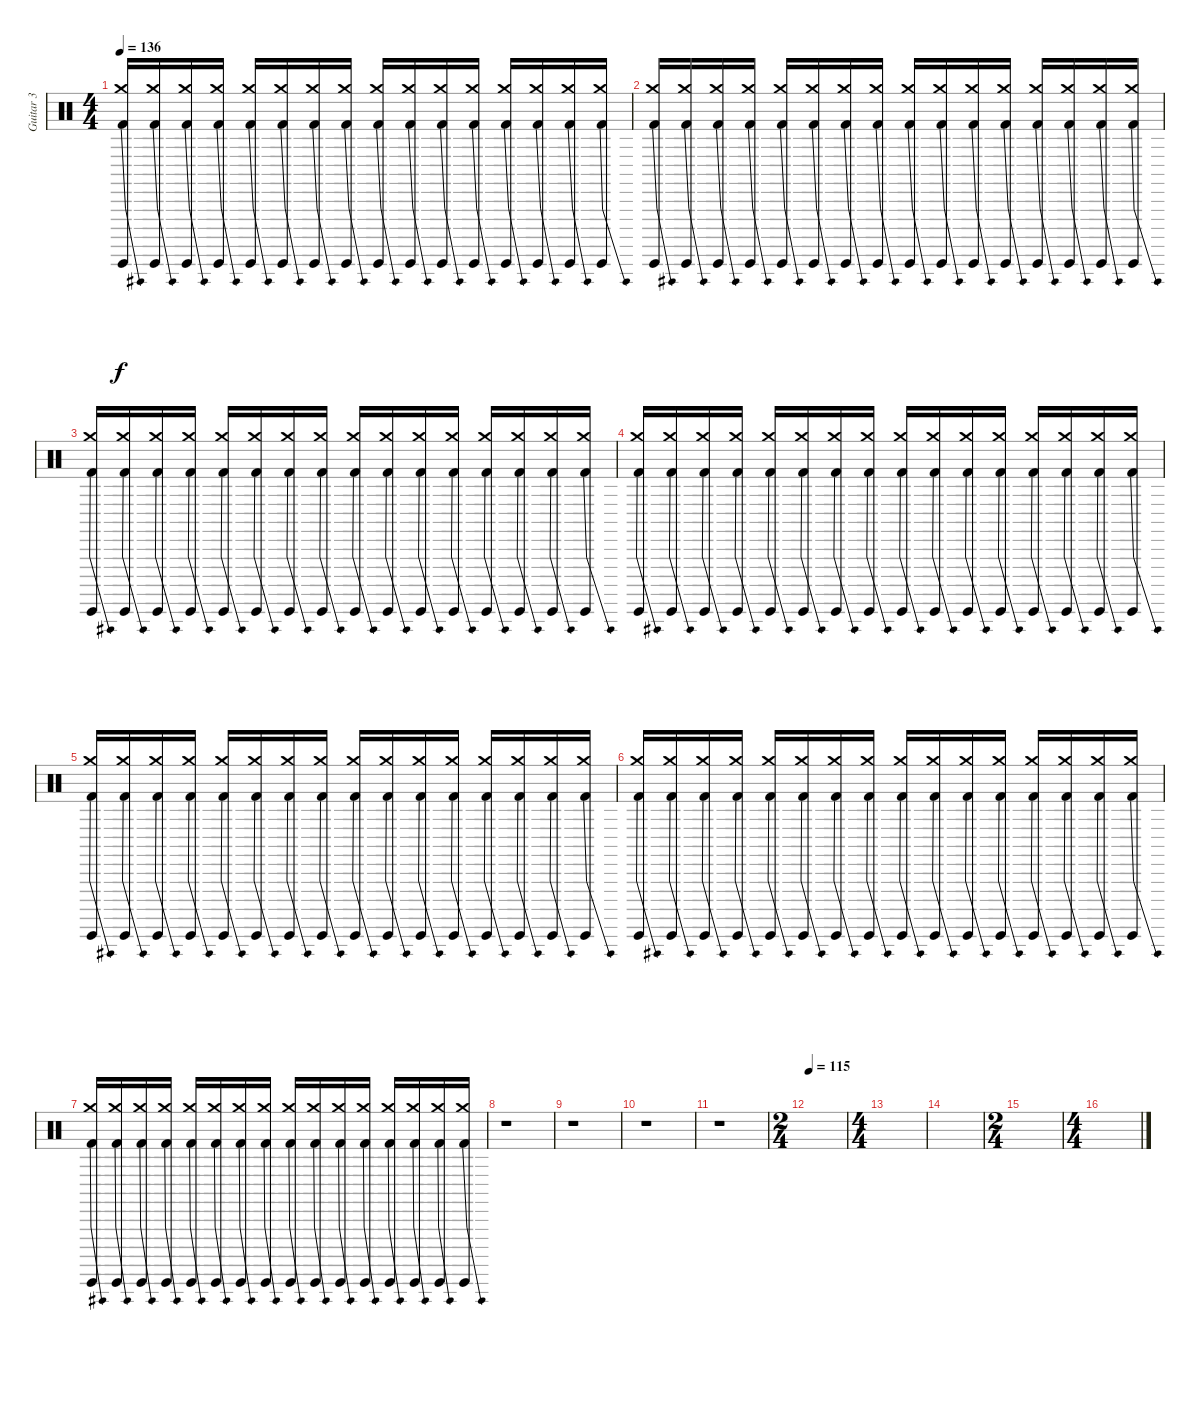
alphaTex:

\track ("Guitar 3" "Guitar 3") {instrument percussion}
\staff {score}
\articulation defaults
\ts (4 4)
\tempo 136
\clef neutral
\ks c
("Kick (hit) 2"{be (bend 0 0 60 12)} "Crash medium (hit)" "Guiro (hit)").16{dy f} ("Kick (hit) 2"{be (bend 0 0 60 12)} "Crash medium (hit)" "Guiro (hit)").16 ("Kick (hit) 2"{be (bend 0 0 60 12)} "Crash medium (hit)" "Guiro (hit)").16 ("Kick (hit) 2"{be (bend 0 0 60 12)} "Crash medium (hit)" "Guiro (hit)").16 ("Kick (hit) 2"{be (bend 0 0 60 12)} "Crash medium (hit)" "Guiro (hit)").16 ("Kick (hit) 2"{be (bend 0 0 60 12)} "Crash medium (hit)" "Guiro (hit)").16 ("Kick (hit) 2"{be (bend 0 0 60 12)} "Crash medium (hit)" "Guiro (hit)").16 ("Kick (hit) 2"{be (bend 0 0 60 12)} "Crash medium (hit)" "Guiro (hit)").16 ("Kick (hit) 2"{be (bend 0 0 60 12)} "Crash medium (hit)" "Guiro (hit)").16 ("Kick (hit) 2"{be (bend 0 0 60 12)} "Crash medium (hit)" "Guiro (hit)").16 ("Kick (hit) 2"{be (bend 0 0 60 12)} "Crash medium (hit)" "Guiro (hit)").16 ("Kick (hit) 2"{be (bend 0 0 60 12)} "Crash medium (hit)" "Guiro (hit)").16 ("Kick (hit) 2"{be (bend 0 0 60 12)} "Crash medium (hit)" "Guiro (hit)").16 ("Kick (hit) 2"{be (bend 0 0 60 12)} "Crash medium (hit)" "Guiro (hit)").16 ("Kick (hit) 2"{be (bend 0 0 60 12)} "Crash medium (hit)" "Guiro (hit)").16 ("Kick (hit) 2"{be (bend 0 0 60 12)} "Crash medium (hit)" "Guiro (hit)").16 |
("Kick (hit) 2"{be (bend 0 0 60 12)} "Crash medium (hit)" "Guiro (hit)").16 ("Kick (hit) 2"{be (bend 0 0 60 12)} "Crash medium (hit)" "Guiro (hit)").16 ("Kick (hit) 2"{be (bend 0 0 60 12)} "Crash medium (hit)" "Guiro (hit)").16 ("Kick (hit) 2"{be (bend 0 0 60 12)} "Crash medium (hit)" "Guiro (hit)").16 ("Kick (hit) 2"{be (bend 0 0 60 12)} "Crash medium (hit)" "Guiro (hit)").16 ("Kick (hit) 2"{be (bend 0 0 60 12)} "Crash medium (hit)" "Guiro (hit)").16 ("Kick (hit) 2"{be (bend 0 0 60 12)} "Crash medium (hit)" "Guiro (hit)").16 ("Kick (hit) 2"{be (bend 0 0 60 12)} "Crash medium (hit)" "Guiro (hit)").16 ("Kick (hit) 2"{be (bend 0 0 60 12)} "Crash medium (hit)" "Guiro (hit)").16 ("Kick (hit) 2"{be (bend 0 0 60 12)} "Crash medium (hit)" "Guiro (hit)").16 ("Kick (hit) 2"{be (bend 0 0 60 12)} "Crash medium (hit)" "Guiro (hit)").16 ("Kick (hit) 2"{be (bend 0 0 60 12)} "Crash medium (hit)" "Guiro (hit)").16 ("Kick (hit) 2"{be (bend 0 0 60 12)} "Crash medium (hit)" "Guiro (hit)").16 ("Kick (hit) 2"{be (bend 0 0 60 12)} "Crash medium (hit)" "Guiro (hit)").16 ("Kick (hit) 2"{be (bend 0 0 60 12)} "Crash medium (hit)" "Guiro (hit)").16 ("Kick (hit) 2"{be (bend 0 0 60 12)} "Crash medium (hit)" "Guiro (hit)").16 |
("Kick (hit) 2"{be (bend 0 0 60 12)} "Crash medium (hit)" "Guiro (hit)").16 ("Kick (hit) 2"{be (bend 0 0 60 12)} "Crash medium (hit)" "Guiro (hit)").16 ("Kick (hit) 2"{be (bend 0 0 60 12)} "Crash medium (hit)" "Guiro (hit)").16 ("Kick (hit) 2"{be (bend 0 0 60 12)} "Crash medium (hit)" "Guiro (hit)").16 ("Kick (hit) 2"{be (bend 0 0 60 12)} "Crash medium (hit)" "Guiro (hit)").16 ("Kick (hit) 2"{be (bend 0 0 60 12)} "Crash medium (hit)" "Guiro (hit)").16 ("Kick (hit) 2"{be (bend 0 0 60 12)} "Crash medium (hit)" "Guiro (hit)").16 ("Kick (hit) 2"{be (bend 0 0 60 12)} "Crash medium (hit)" "Guiro (hit)").16 ("Kick (hit) 2"{be (bend 0 0 60 12)} "Crash medium (hit)" "Guiro (hit)").16 ("Kick (hit) 2"{be (bend 0 0 60 12)} "Crash medium (hit)" "Guiro (hit)").16 ("Kick (hit) 2"{be (bend 0 0 60 12)} "Crash medium (hit)" "Guiro (hit)").16 ("Kick (hit) 2"{be (bend 0 0 60 12)} "Crash medium (hit)" "Guiro (hit)").16 ("Kick (hit) 2"{be (bend 0 0 60 12)} "Crash medium (hit)" "Guiro (hit)").16 ("Kick (hit) 2"{be (bend 0 0 60 12)} "Crash medium (hit)" "Guiro (hit)").16 ("Kick (hit) 2"{be (bend 0 0 60 12)} "Crash medium (hit)" "Guiro (hit)").16 ("Kick (hit) 2"{be (bend 0 0 60 12)} "Crash medium (hit)" "Guiro (hit)").16 |
("Kick (hit) 2"{be (bend 0 0 60 12)} "Crash medium (hit)" "Guiro (hit)").16 ("Kick (hit) 2"{be (bend 0 0 60 12)} "Crash medium (hit)" "Guiro (hit)").16 ("Kick (hit) 2"{be (bend 0 0 60 12)} "Crash medium (hit)" "Guiro (hit)").16 ("Kick (hit) 2"{be (bend 0 0 60 12)} "Crash medium (hit)" "Guiro (hit)").16 ("Kick (hit) 2"{be (bend 0 0 60 12)} "Crash medium (hit)" "Guiro (hit)").16 ("Kick (hit) 2"{be (bend 0 0 60 12)} "Crash medium (hit)" "Guiro (hit)").16 ("Kick (hit) 2"{be (bend 0 0 60 12)} "Crash medium (hit)" "Guiro (hit)").16 ("Kick (hit) 2"{be (bend 0 0 60 12)} "Crash medium (hit)" "Guiro (hit)").16 ("Kick (hit) 2"{be (bend 0 0 60 12)} "Crash medium (hit)" "Guiro (hit)").16 ("Kick (hit) 2"{be (bend 0 0 60 12)} "Crash medium (hit)" "Guiro (hit)").16 ("Kick (hit) 2"{be (bend 0 0 60 12)} "Crash medium (hit)" "Guiro (hit)").16 ("Kick (hit) 2"{be (bend 0 0 60 12)} "Crash medium (hit)" "Guiro (hit)").16 ("Kick (hit) 2"{be (bend 0 0 60 12)} "Crash medium (hit)" "Guiro (hit)").16 ("Kick (hit) 2"{be (bend 0 0 60 12)} "Crash medium (hit)" "Guiro (hit)").16 ("Kick (hit) 2"{be (bend 0 0 60 12)} "Crash medium (hit)" "Guiro (hit)").16 ("Kick (hit) 2"{be (bend 0 0 60 12)} "Crash medium (hit)" "Guiro (hit)").16 |
("Kick (hit) 2"{be (bend 0 0 60 12)} "Crash medium (hit)" "Guiro (hit)").16 ("Kick (hit) 2"{be (bend 0 0 60 12)} "Crash medium (hit)" "Guiro (hit)").16 ("Kick (hit) 2"{be (bend 0 0 60 12)} "Crash medium (hit)" "Guiro (hit)").16 ("Kick (hit) 2"{be (bend 0 0 60 12)} "Crash medium (hit)" "Guiro (hit)").16 ("Kick (hit) 2"{be (bend 0 0 60 12)} "Crash medium (hit)" "Guiro (hit)").16 ("Kick (hit) 2"{be (bend 0 0 60 12)} "Crash medium (hit)" "Guiro (hit)").16 ("Kick (hit) 2"{be (bend 0 0 60 12)} "Crash medium (hit)" "Guiro (hit)").16 ("Kick (hit) 2"{be (bend 0 0 60 12)} "Crash medium (hit)" "Guiro (hit)").16 ("Kick (hit) 2"{be (bend 0 0 60 12)} "Crash medium (hit)" "Guiro (hit)").16 ("Kick (hit) 2"{be (bend 0 0 60 12)} "Crash medium (hit)" "Guiro (hit)").16 ("Kick (hit) 2"{be (bend 0 0 60 12)} "Crash medium (hit)" "Guiro (hit)").16 ("Kick (hit) 2"{be (bend 0 0 60 12)} "Crash medium (hit)" "Guiro (hit)").16 ("Kick (hit) 2"{be (bend 0 0 60 12)} "Crash medium (hit)" "Guiro (hit)").16 ("Kick (hit) 2"{be (bend 0 0 60 12)} "Crash medium (hit)" "Guiro (hit)").16 ("Kick (hit) 2"{be (bend 0 0 60 12)} "Crash medium (hit)" "Guiro (hit)").16 ("Kick (hit) 2"{be (bend 0 0 60 12)} "Crash medium (hit)" "Guiro (hit)").16 |
("Kick (hit) 2"{be (bend 0 0 60 12)} "Crash medium (hit)" "Guiro (hit)").16 ("Kick (hit) 2"{be (bend 0 0 60 12)} "Crash medium (hit)" "Guiro (hit)").16 ("Kick (hit) 2"{be (bend 0 0 60 12)} "Crash medium (hit)" "Guiro (hit)").16 ("Kick (hit) 2"{be (bend 0 0 60 12)} "Crash medium (hit)" "Guiro (hit)").16 ("Kick (hit) 2"{be (bend 0 0 60 12)} "Crash medium (hit)" "Guiro (hit)").16 ("Kick (hit) 2"{be (bend 0 0 60 12)} "Crash medium (hit)" "Guiro (hit)").16 ("Kick (hit) 2"{be (bend 0 0 60 12)} "Crash medium (hit)" "Guiro (hit)").16 ("Kick (hit) 2"{be (bend 0 0 60 12)} "Crash medium (hit)" "Guiro (hit)").16 ("Kick (hit) 2"{be (bend 0 0 60 12)} "Crash medium (hit)" "Guiro (hit)").16 ("Kick (hit) 2"{be (bend 0 0 60 12)} "Crash medium (hit)" "Guiro (hit)").16 ("Kick (hit) 2"{be (bend 0 0 60 12)} "Crash medium (hit)" "Guiro (hit)").16 ("Kick (hit) 2"{be (bend 0 0 60 12)} "Crash medium (hit)" "Guiro (hit)").16 ("Kick (hit) 2"{be (bend 0 0 60 12)} "Crash medium (hit)" "Guiro (hit)").16 ("Kick (hit) 2"{be (bend 0 0 60 12)} "Crash medium (hit)" "Guiro (hit)").16 ("Kick (hit) 2"{be (bend 0 0 60 12)} "Crash medium (hit)" "Guiro (hit)").16 ("Kick (hit) 2"{be (bend 0 0 60 12)} "Crash medium (hit)" "Guiro (hit)").16 |
("Kick (hit) 2"{be (bend 0 0 60 12)} "Crash medium (hit)" "Guiro (hit)").16 ("Kick (hit) 2"{be (bend 0 0 60 12)} "Crash medium (hit)" "Guiro (hit)").16 ("Kick (hit) 2"{be (bend 0 0 60 12)} "Crash medium (hit)" "Guiro (hit)").16 ("Kick (hit) 2"{be (bend 0 0 60 12)} "Crash medium (hit)" "Guiro (hit)").16 ("Kick (hit) 2"{be (bend 0 0 60 12)} "Crash medium (hit)" "Guiro (hit)").16 ("Kick (hit) 2"{be (bend 0 0 60 12)} "Crash medium (hit)" "Guiro (hit)").16 ("Kick (hit) 2"{be (bend 0 0 60 12)} "Crash medium (hit)" "Guiro (hit)").16 ("Kick (hit) 2"{be (bend 0 0 60 12)} "Crash medium (hit)" "Guiro (hit)").16 ("Kick (hit) 2"{be (bend 0 0 60 12)} "Crash medium (hit)" "Guiro (hit)").16 ("Kick (hit) 2"{be (bend 0 0 60 12)} "Crash medium (hit)" "Guiro (hit)").16 ("Kick (hit) 2"{be (bend 0 0 60 12)} "Crash medium (hit)" "Guiro (hit)").16 ("Kick (hit) 2"{be (bend 0 0 60 12)} "Crash medium (hit)" "Guiro (hit)").16 ("Kick (hit) 2"{be (bend 0 0 60 12)} "Crash medium (hit)" "Guiro (hit)").16 ("Kick (hit) 2"{be (bend 0 0 60 12)} "Crash medium (hit)" "Guiro (hit)").16 ("Kick (hit) 2"{be (bend 0 0 60 12)} "Crash medium (hit)" "Guiro (hit)").16 ("Kick (hit) 2"{be (bend 0 0 60 12)} "Crash medium (hit)" "Guiro (hit)").16 |
r.1 |
r.1 |
r.1 |
r.1 |
\ts (2 4)
\tempo 115
|
\ts (4 4)
|
|
\ts (2 4)
|
\ts (4 4)
